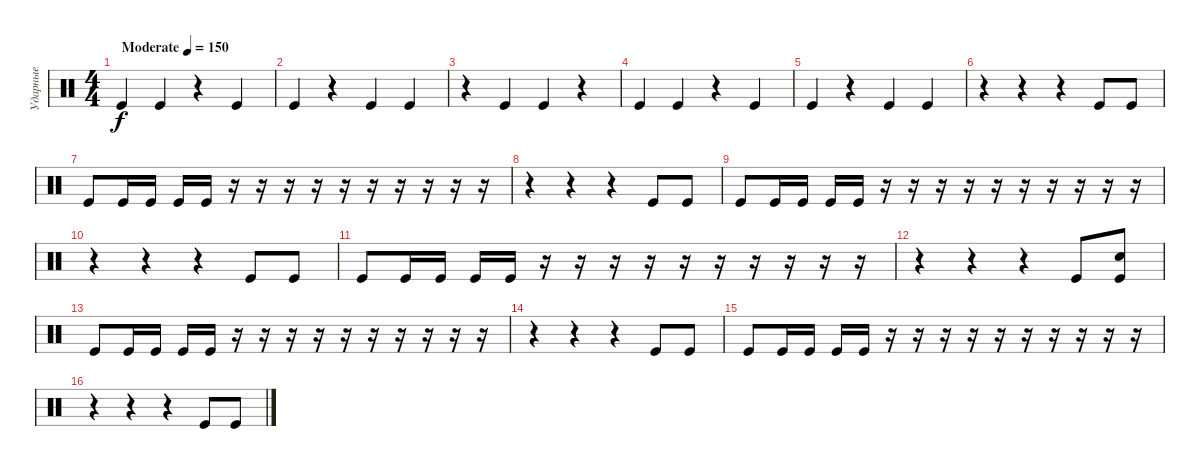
\track ("Ударные" "Ударные") {instrument percussion}
\staff {score}
\articulation defaults
\ts (4 4)
\tempo (150 "Moderate")
\clef neutral
\ks c "Kick (hit)".4{dy f} "Kick (hit)".4
r.4 "Kick (hit)".4 |
"Kick (hit)".4 r.4 "Kick (hit)".4 "Kick (hit)".4 |
r.4 "Kick (hit)".4 "Kick (hit)".4 r.4 |
"Kick (hit)".4 "Kick (hit)".4 r.4 "Kick (hit)".4 |
"Kick (hit)".4 r.4 "Kick (hit)".4 "Kick (hit)".4 |
r.4 r.4 r.4 "Kick (hit)".8 "Kick (hit)".8 |
"Kick (hit)".8 "Kick (hit)".16 "Kick (hit)".16 "Kick (hit)".16 "Kick (hit)".16 r.16 r.16 r.16 r.16 r.16 r.16 r.16 r.16 r.16 r.16 |
r.4 r.4 r.4 "Kick (hit)".8 "Kick (hit)".8 |
"Kick (hit)".8 "Kick (hit)".16 "Kick (hit)".16 "Kick (hit)".16 "Kick (hit)".16 r.16 r.16 r.16 r.16 r.16 r.16 r.16 r.16 r.16 r.16 |
r.4 r.4 r.4 "Kick (hit)".8 "Kick (hit)".8 |
"Kick (hit)".8 "Kick (hit)".16 "Kick (hit)".16 "Kick (hit)".16 "Kick (hit)".16 r.16 r.16 r.16 r.16 r.16 r.16 r.16 r.16 r.16 r.16 |
r.4 r.4 r.4 "Kick (hit)".8 ("Kick (hit)" "Snare (hit)").8 |
"Kick (hit)".8 "Kick (hit)".16 "Kick (hit)".16 "Kick (hit)".16 "Kick (hit)".16 r.16 r.16 r.16 r.16 r.16 r.16 r.16 r.16 r.16 r.16 |
r.4 r.4 r.4 "Kick (hit)".8 "Kick (hit)".8 |
"Kick (hit)".8 "Kick (hit)".16 "Kick (hit)".16 "Kick (hit)".16 "Kick (hit)".16 r.16 r.16 r.16 r.16 r.16 r.16 r.16 r.16 r.16 r.16 |
r.4 r.4 r.4 "Kick (hit)".8 "Kick (hit)".8
